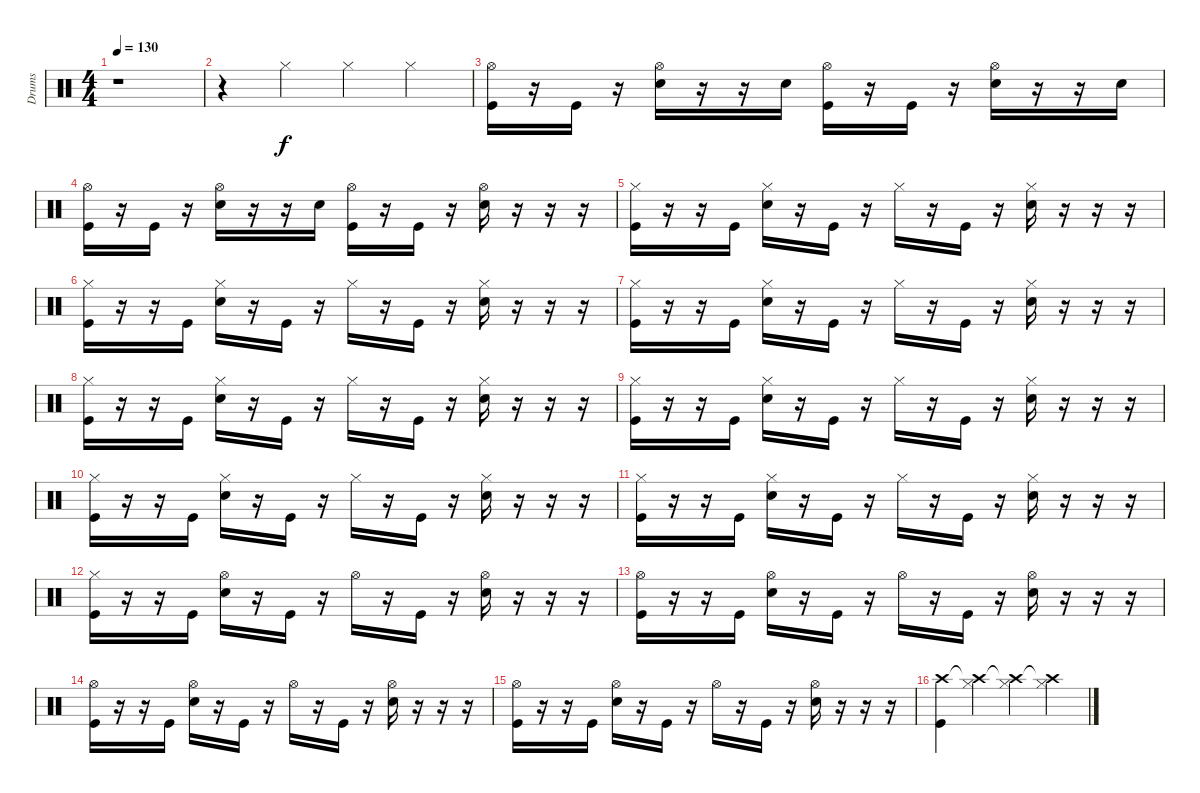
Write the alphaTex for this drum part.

\track ("Drums" "Drums") {instrument percussion}
\staff {score}
\articulation defaults
\ts (4 4)
\tempo 130
\clef neutral
\ks c
r.1{dy f} |
r.4 "Hi-Hat (closed)".4 "Hi-Hat (closed)".4 "Hi-Hat (closed)".4 |
("Hi-Hat (open)" "Kick (hit)").16 r.16 "Kick (hit)".16 r.16 ("Hi-Hat (open)" "Snare (hit) 2").16 r.16 r.16 "Snare (hit) 2".16 ("Hi-Hat (open)" "Kick (hit)").16 r.16 "Kick (hit)".16 r.16 ("Hi-Hat (open)" "Snare (hit) 2").16 r.16 r.16 "Snare (hit) 2".16 |
("Hi-Hat (open)" "Kick (hit)").16 r.16 "Kick (hit)".16 r.16 ("Hi-Hat (open)" "Snare (hit) 2").16 r.16 r.16 "Snare (hit) 2".16 ("Hi-Hat (open)" "Kick (hit)").16 r.16 "Kick (hit)".16 r.16 ("Hi-Hat (open)" "Snare (hit) 2").16 r.16 r.16 r.16 |
("Hi-Hat (closed)" "Kick (hit)").16 r.16 r.16 "Kick (hit)".16 ("Hi-Hat (closed)" "Snare (hit) 2").16 r.16 "Kick (hit)".16 r.16 "Hi-Hat (closed)".16 r.16 "Kick (hit)".16 r.16 ("Hi-Hat (closed)" "Snare (hit) 2").16 r.16 r.16 r.16 |
("Hi-Hat (closed)" "Kick (hit)").16 r.16 r.16 "Kick (hit)".16 ("Hi-Hat (closed)" "Snare (hit) 2").16 r.16 "Kick (hit)".16 r.16 "Hi-Hat (closed)".16 r.16 "Kick (hit)".16 r.16 ("Hi-Hat (closed)" "Snare (hit) 2").16 r.16 r.16 r.16 |
("Hi-Hat (closed)" "Kick (hit)").16 r.16 r.16 "Kick (hit)".16 ("Hi-Hat (closed)" "Snare (hit) 2").16 r.16 "Kick (hit)".16 r.16 "Hi-Hat (closed)".16 r.16 "Kick (hit)".16 r.16 ("Hi-Hat (closed)" "Snare (hit) 2").16 r.16 r.16 r.16 |
("Hi-Hat (closed)" "Kick (hit)").16 r.16 r.16 "Kick (hit)".16 ("Hi-Hat (closed)" "Snare (hit) 2").16 r.16 "Kick (hit)".16 r.16 "Hi-Hat (closed)".16 r.16 "Kick (hit)".16 r.16 ("Hi-Hat (closed)" "Snare (hit) 2").16 r.16 r.16 r.16 |
("Hi-Hat (closed)" "Kick (hit)").16 r.16 r.16 "Kick (hit)".16 ("Hi-Hat (closed)" "Snare (hit) 2").16 r.16 "Kick (hit)".16 r.16 "Hi-Hat (closed)".16 r.16 "Kick (hit)".16 r.16 ("Hi-Hat (closed)" "Snare (hit) 2").16 r.16 r.16 r.16 |
("Hi-Hat (closed)" "Kick (hit)").16 r.16 r.16 "Kick (hit)".16 ("Hi-Hat (closed)" "Snare (hit) 2").16 r.16 "Kick (hit)".16 r.16 "Hi-Hat (closed)".16 r.16 "Kick (hit)".16 r.16 ("Hi-Hat (closed)" "Snare (hit) 2").16 r.16 r.16 r.16 |
("Hi-Hat (closed)" "Kick (hit)").16 r.16 r.16 "Kick (hit)".16 ("Hi-Hat (closed)" "Snare (hit) 2").16 r.16 "Kick (hit)".16 r.16 "Hi-Hat (closed)".16 r.16 "Kick (hit)".16 r.16 ("Hi-Hat (closed)" "Snare (hit) 2").16 r.16 r.16 r.16 |
("Hi-Hat (closed)" "Kick (hit)").16 r.16 r.16 "Kick (hit)".16 ("Hi-Hat (open)" "Snare (hit) 2").16 r.16 "Kick (hit)".16 r.16 "Hi-Hat (open)".16 r.16 "Kick (hit)".16 r.16 ("Hi-Hat (open)" "Snare (hit) 2").16 r.16 r.16 r.16 |
("Hi-Hat (open)" "Kick (hit)").16 r.16 r.16 "Kick (hit)".16 ("Hi-Hat (open)" "Snare (hit) 2").16 r.16 "Kick (hit)".16 r.16 "Hi-Hat (open)".16 r.16 "Kick (hit)".16 r.16 ("Hi-Hat (open)" "Snare (hit) 2").16 r.16 r.16 r.16 |
("Hi-Hat (open)" "Kick (hit)").16 r.16 r.16 "Kick (hit)".16 ("Hi-Hat (open)" "Snare (hit) 2").16 r.16 "Kick (hit)".16 r.16 "Hi-Hat (open)".16 r.16 "Kick (hit)".16 r.16 ("Hi-Hat (open)" "Snare (hit) 2").16 r.16 r.16 r.16 |
("Hi-Hat (open)" "Kick (hit)").16 r.16 r.16 "Kick (hit)".16 ("Hi-Hat (open)" "Snare (hit) 2").16 r.16 "Kick (hit)".16 r.16 "Hi-Hat (open)".16 r.16 "Kick (hit)".16 r.16 ("Hi-Hat (open)" "Snare (hit) 2").16 r.16 r.16 r.16 |
("Crash high (hit)" "Kick (hit)").4 ("Crash high (hit)"{t} "Hi-Hat (closed)").4 ("Crash high (hit)"{t} "Hi-Hat (closed)").4 ("Crash high (hit)"{t} "Hi-Hat (closed)").4
